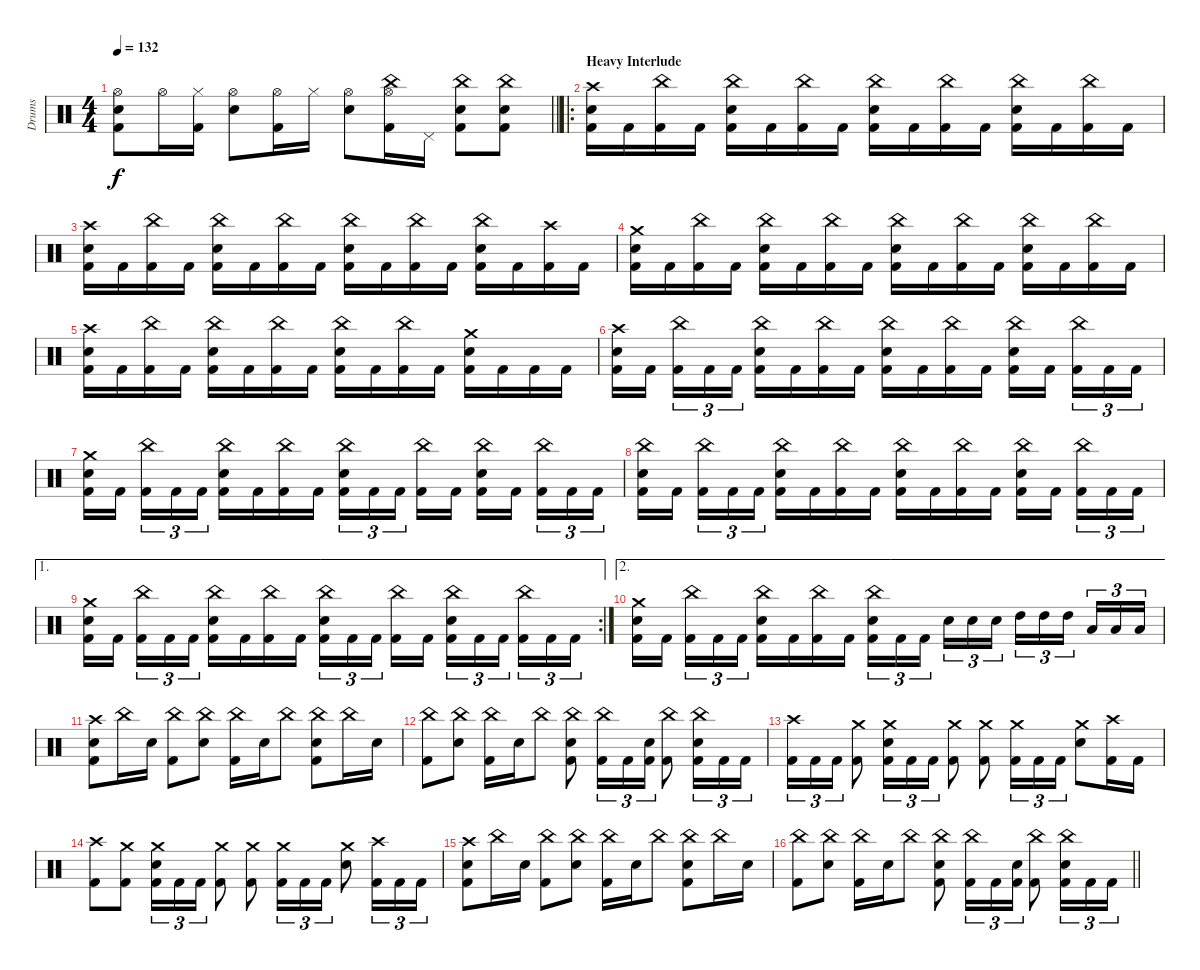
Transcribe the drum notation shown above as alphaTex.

\track ("Drums" "Drums") {instrument percussion}
\staff {score}
\articulation defaults
\ts (4 4)
\tempo 132
\clef neutral
\barLineRight lightlight
\ks c
("Hi-Hat (open)" "Electric Snare (hit)" "Kick (hit) 2").8{dy f} "Hi-Hat (open)".16 ("Hi-Hat (closed)" "Kick (hit) 2").16 ("Hi-Hat (open)" "Electric Snare (hit)").8 ("Hi-Hat (open)" "Kick (hit) 2").16 "Hi-Hat (closed)".16 ("Hi-Hat (open)" "Electric Snare (hit)").8 ("China (hit)" "Hi-Hat (open)" "Kick (hit) 2").16 "Pedal Hi-Hat (hit)".16 ("China (hit)" "Electric Snare (hit)" "Kick (hit) 2").8 ("China (hit)" "Electric Snare (hit)" "Kick (hit) 2").8 |
\ro
\section ("" "Heavy Interlude")
("Crash high (hit)" "Electric Snare (hit)" "Kick (hit) 2").16 "Kick (hit) 2".16 ("China (hit)" "Kick (hit) 2").16 "Kick (hit) 2".16 ("China (hit)" "Electric Snare (hit)" "Kick (hit) 2").16 "Kick (hit) 2".16 ("China (hit)" "Kick (hit) 2").16 "Kick (hit) 2".16 ("China (hit)" "Electric Snare (hit)" "Kick (hit) 2").16 "Kick (hit) 2".16 ("China (hit)" "Kick (hit) 2").16 "Kick (hit) 2".16 ("China (hit)" "Electric Snare (hit)" "Kick (hit) 2").16 "Kick (hit) 2".16 ("China (hit)" "Kick (hit) 2").16 "Kick (hit) 2".16 |
("Crash high (hit)" "Electric Snare (hit)" "Kick (hit) 2").16 "Kick (hit) 2".16 ("China (hit)" "Kick (hit) 2").16 "Kick (hit) 2".16 ("China (hit)" "Electric Snare (hit)" "Kick (hit) 2").16 "Kick (hit) 2".16 ("China (hit)" "Kick (hit) 2").16 "Kick (hit) 2".16 ("China (hit)" "Electric Snare (hit)" "Kick (hit) 2").16 "Kick (hit) 2".16 ("China (hit)" "Kick (hit) 2").16 "Kick (hit) 2".16 ("China (hit)" "Electric Snare (hit)" "Kick (hit) 2").16 "Kick (hit) 2".16 ("Crash high (hit)" "Kick (hit) 2").16 "Kick (hit) 2".16 |
("Crash medium (hit)" "Electric Snare (hit)" "Kick (hit) 2").16 "Kick (hit) 2".16 ("China (hit)" "Kick (hit) 2").16 "Kick (hit) 2".16 ("China (hit)" "Electric Snare (hit)" "Kick (hit) 2").16 "Kick (hit) 2".16 ("China (hit)" "Kick (hit) 2").16 "Kick (hit) 2".16 ("China (hit)" "Electric Snare (hit)" "Kick (hit) 2").16 "Kick (hit) 2".16 ("China (hit)" "Kick (hit) 2").16 "Kick (hit) 2".16 ("China (hit)" "Electric Snare (hit)" "Kick (hit) 2").16 "Kick (hit) 2".16 ("China (hit)" "Kick (hit) 2").16 "Kick (hit) 2".16 |
("Crash high (hit)" "Electric Snare (hit)" "Kick (hit) 2").16 "Kick (hit) 2".16 ("China (hit)" "Kick (hit) 2").16 "Kick (hit) 2".16 ("China (hit)" "Electric Snare (hit)" "Kick (hit) 2").16 "Kick (hit) 2".16 ("China (hit)" "Kick (hit) 2").16 "Kick (hit) 2".16 ("China (hit)" "Electric Snare (hit)" "Kick (hit) 2").16 "Kick (hit) 2".16 ("China (hit)" "Kick (hit) 2").16 "Kick (hit) 2".16 ("Crash medium (hit)" "Electric Snare (hit)" "Kick (hit) 2").16 "Kick (hit) 2".16 "Kick (hit) 2".16 "Kick (hit) 2".16 |
("Crash high (hit)" "Electric Snare (hit)" "Kick (hit) 2").16 "Kick (hit) 2".16{beam splitsecondary} ("China (hit)" "Kick (hit) 2").16{tu (3 2)} "Kick (hit) 2".16{tu (3 2)} "Kick (hit) 2".16{tu (3 2)} ("China (hit)" "Electric Snare (hit)" "Kick (hit) 2").16 "Kick (hit) 2".16 ("China (hit)" "Kick (hit) 2").16 "Kick (hit) 2".16 ("China (hit)" "Electric Snare (hit)" "Kick (hit) 2").16 "Kick (hit) 2".16 ("China (hit)" "Kick (hit) 2").16 "Kick (hit) 2".16 ("China (hit)" "Electric Snare (hit)" "Kick (hit) 2").16 "Kick (hit) 2".16{beam splitsecondary} ("China (hit)" "Kick (hit) 2").16{tu (3 2)} "Kick (hit) 2".16{tu (3 2)} "Kick (hit) 2".16{tu (3 2)} |
("Crash medium (hit)" "Electric Snare (hit)" "Kick (hit) 2").16 "Kick (hit) 2".16{beam splitsecondary} ("China (hit)" "Kick (hit) 2").16{tu (3 2)} "Kick (hit) 2".16{tu (3 2)} "Kick (hit) 2".16{tu (3 2)} ("China (hit)" "Electric Snare (hit)" "Kick (hit) 2").16 "Kick (hit) 2".16 ("China (hit)" "Kick (hit) 2").16 "Kick (hit) 2".16 ("China (hit)" "Electric Snare (hit)" "Kick (hit) 2").16{tu (3 2)} "Kick (hit) 2".16{tu (3 2)} "Kick (hit) 2".16{tu (3 2) beam splitsecondary} ("China (hit)" "Kick (hit) 2").16 "Kick (hit) 2".16 ("China (hit)" "Electric Snare (hit)" "Kick (hit) 2").16 "Kick (hit) 2".16{beam splitsecondary} ("China (hit)" "Kick (hit) 2").16{tu (3 2)} "Kick (hit) 2".16{tu (3 2)} "Kick (hit) 2".16{tu (3 2)} |
("China (hit)" "Electric Snare (hit)" "Kick (hit) 2").16 "Kick (hit) 2".16{beam splitsecondary} ("China (hit)" "Kick (hit) 2").16{tu (3 2)} "Kick (hit) 2".16{tu (3 2)} "Kick (hit) 2".16{tu (3 2)} ("China (hit)" "Electric Snare (hit)" "Kick (hit) 2").16 "Kick (hit) 2".16 ("China (hit)" "Kick (hit) 2").16 "Kick (hit) 2".16 ("China (hit)" "Electric Snare (hit)" "Kick (hit) 2").16 "Kick (hit) 2".16 ("China (hit)" "Kick (hit) 2").16 "Kick (hit) 2".16 ("China (hit)" "Electric Snare (hit)" "Kick (hit) 2").16 "Kick (hit) 2".16{beam splitsecondary} ("China (hit)" "Kick (hit) 2").16{tu (3 2)} "Kick (hit) 2".16{tu (3 2)} "Kick (hit) 2".16{tu (3 2)} |
\ae 1
\rc 2
("Crash medium (hit)" "Electric Snare (hit)" "Kick (hit) 2").16 "Kick (hit) 2".16{beam splitsecondary} ("China (hit)" "Kick (hit) 2").16{tu (3 2)} "Kick (hit) 2".16{tu (3 2)} "Kick (hit) 2".16{tu (3 2)} ("China (hit)" "Electric Snare (hit)" "Kick (hit) 2").16 "Kick (hit) 2".16 ("China (hit)" "Kick (hit) 2").16 "Kick (hit) 2".16 ("China (hit)" "Electric Snare (hit)" "Kick (hit) 2").16{tu (3 2)} "Kick (hit) 2".16{tu (3 2)} "Kick (hit) 2".16{tu (3 2) beam splitsecondary} ("China (hit)" "Kick (hit) 2").16 "Kick (hit) 2".16 ("China (hit)" "Electric Snare (hit)" "Kick (hit) 2").16{tu (3 2)} "Kick (hit) 2".16{tu (3 2)} "Kick (hit) 2".16{tu (3 2) beam splitsecondary} ("China (hit)" "Kick (hit) 2").16{tu (3 2)} "Kick (hit) 2".16{tu (3 2)} "Kick (hit) 2".16{tu (3 2)} |
\ae 2
("Crash medium (hit)" "Electric Snare (hit)" "Kick (hit) 2").16 "Kick (hit) 2".16{beam splitsecondary} ("China (hit)" "Kick (hit) 2").16{tu (3 2)} "Kick (hit) 2".16{tu (3 2)} "Kick (hit) 2".16{tu (3 2)} ("China (hit)" "Electric Snare (hit)" "Kick (hit) 2").16 "Kick (hit) 2".16 ("China (hit)" "Kick (hit) 2").16 "Kick (hit) 2".16 ("China (hit)" "Electric Snare (hit)" "Kick (hit) 2").16{tu (3 2)} "Kick (hit) 2".16{tu (3 2)} "Kick (hit) 2".16{tu (3 2) beam splitsecondary} "Electric Snare (hit)".16{tu (3 2)} "Electric Snare (hit)".16{tu (3 2)} "Electric Snare (hit)".16{tu (3 2)} "High Tom (hit)".16{tu (3 2)} "High Tom (hit)".16{tu (3 2)} "High Tom (hit)".16{tu (3 2) beam splitsecondary} "Low Tom (hit)".16{tu (3 2)} "Low Tom (hit)".16{tu (3 2)} "Low Tom (hit)".16{tu (3 2)} |
("Crash high (hit)" "Electric Snare (hit)" "Kick (hit) 2").8 "China (hit)".16 "Electric Snare (hit)".16 ("China (hit)" "Kick (hit) 2").8 ("China (hit)" "Electric Snare (hit)").8 ("China (hit)" "Kick (hit) 2").16 "Electric Snare (hit)".16 "China (hit)".8 ("China (hit)" "Electric Snare (hit)" "Kick (hit) 2").8 "China (hit)".16 "Electric Snare (hit)".16 |
("China (hit)" "Kick (hit) 2").8 ("China (hit)" "Electric Snare (hit)").8 ("China (hit)" "Kick (hit) 2").16 "Electric Snare (hit)".16 "China (hit)".8 ("China (hit)" "Electric Snare (hit)" "Kick (hit) 2").8 ("China (hit)" "Kick (hit) 2").16{tu (3 2)} "Kick (hit) 2".16{tu (3 2)} ("Electric Snare (hit)" "Kick (hit) 2").16{tu (3 2)} ("China (hit)" "Kick (hit) 2").8 ("China (hit)" "Electric Snare (hit)" "Kick (hit) 2").16{tu (3 2)} "Kick (hit) 2".16{tu (3 2)} "Kick (hit) 2".16{tu (3 2)} |
("Crash high (hit)" "Kick (hit) 2").16{tu (3 2)} "Kick (hit) 2".16{tu (3 2)} "Kick (hit) 2".16{tu (3 2)} ("Crash medium (hit)" "Kick (hit) 2").8 ("Crash medium (hit)" "Electric Snare (hit)" "Kick (hit) 2").16{tu (3 2)} "Kick (hit) 2".16{tu (3 2)} "Kick (hit) 2".16{tu (3 2)} ("Crash medium (hit)" "Kick (hit) 2").8 ("Crash medium (hit)" "Kick (hit) 2").8 ("Crash medium (hit)" "Kick (hit) 2").16{tu (3 2)} "Kick (hit) 2".16{tu (3 2)} "Kick (hit) 2".16{tu (3 2)} ("Crash medium (hit)" "Electric Snare (hit)").8 ("Crash high (hit)" "Kick (hit) 2").16 "Kick (hit) 2".16 |
("Crash high (hit)" "Kick (hit) 2").8 ("Crash medium (hit)" "Kick (hit) 2").8 ("Crash medium (hit)" "Electric Snare (hit)" "Kick (hit) 2").16{tu (3 2)} "Kick (hit) 2".16{tu (3 2)} "Kick (hit) 2".16{tu (3 2)} ("Crash medium (hit)" "Kick (hit) 2").8 ("Crash medium (hit)" "Kick (hit) 2").8 ("Crash medium (hit)" "Kick (hit) 2").16{tu (3 2)} "Kick (hit) 2".16{tu (3 2)} "Kick (hit) 2".16{tu (3 2)} ("Crash medium (hit)" "Electric Snare (hit)").8 ("Crash high (hit)" "Kick (hit) 2").16{tu (3 2)} "Kick (hit) 2".16{tu (3 2)} "Kick (hit) 2".16{tu (3 2)} |
("Crash high (hit)" "Electric Snare (hit)" "Kick (hit) 2").8 "China (hit)".16 "Electric Snare (hit)".16 ("China (hit)" "Kick (hit) 2").8 ("China (hit)" "Electric Snare (hit)").8 ("China (hit)" "Kick (hit) 2").16 "Electric Snare (hit)".16 "China (hit)".8 ("China (hit)" "Electric Snare (hit)" "Kick (hit) 2").8 "China (hit)".16 "Electric Snare (hit)".16 |
\barLineRight lightlight
("China (hit)" "Kick (hit) 2").8 ("China (hit)" "Electric Snare (hit)").8 ("China (hit)" "Kick (hit) 2").16 "Electric Snare (hit)".16 "China (hit)".8 ("China (hit)" "Electric Snare (hit)" "Kick (hit) 2").8 ("China (hit)" "Kick (hit) 2").16{tu (3 2)} "Kick (hit) 2".16{tu (3 2)} ("Electric Snare (hit)" "Kick (hit) 2").16{tu (3 2)} ("China (hit)" "Kick (hit) 2").8 ("China (hit)" "Electric Snare (hit)" "Kick (hit) 2").16{tu (3 2)} "Kick (hit) 2".16{tu (3 2)} "Kick (hit) 2".16{tu (3 2)}
